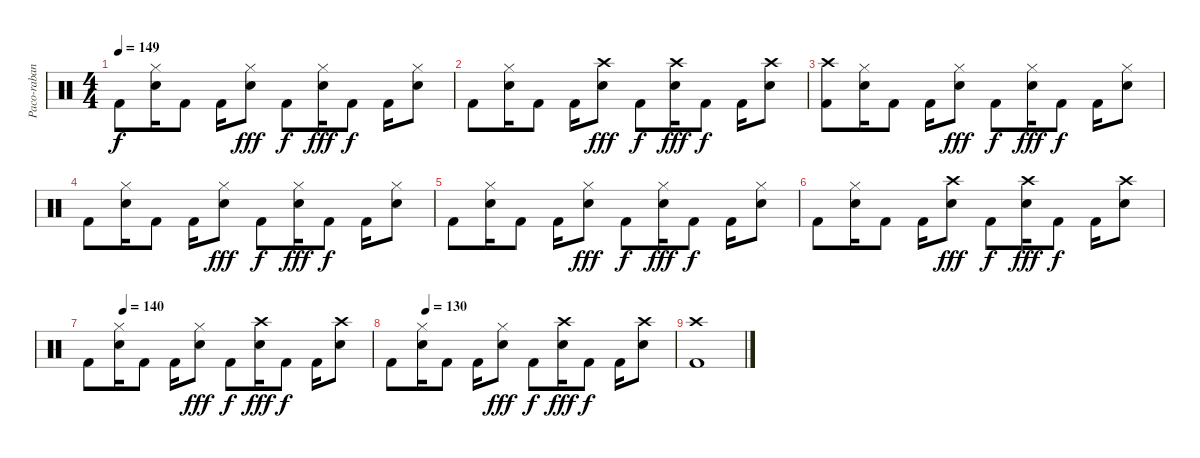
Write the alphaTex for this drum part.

\track ("Paco-rabane" "Paco-raban") {instrument percussion}
\staff {score}
\articulation defaults
\ts (4 4)
\tempo 149
\clef neutral
\ks c "Kick (hit) 2".8{dy f}
("Hi-Hat (closed)" "Snare (hit) 2").16 "Kick (hit) 2".8 "Kick (hit) 2".16 ("Hi-Hat (closed)" "Snare (hit) 2").8{dy fff} "Kick (hit) 2".8{dy f} ("Hi-Hat (closed)" "Snare (hit) 2").16{dy fff} "Kick (hit) 2".8{dy f} "Kick (hit) 2".16 ("Hi-Hat (closed)" "Snare (hit) 2").8 |
"Kick (hit) 2".8 ("Hi-Hat (closed)" "Snare (hit) 2").16 "Kick (hit) 2".8 "Kick (hit) 2".16 ("Crash high (hit)" "Snare (hit) 2").8{dy fff} "Kick (hit) 2".8{dy f} ("Crash high (hit)" "Snare (hit) 2").16{dy fff} "Kick (hit) 2".8{dy f} "Kick (hit) 2".16 ("Crash high (hit)" "Snare (hit) 2").8 |
("Crash high (hit)" "Kick (hit) 2").8 ("Hi-Hat (closed)" "Snare (hit) 2").16 "Kick (hit) 2".8 "Kick (hit) 2".16 ("Hi-Hat (closed)" "Snare (hit) 2").8{dy fff} "Kick (hit) 2".8{dy f} ("Hi-Hat (closed)" "Snare (hit) 2").16{dy fff} "Kick (hit) 2".8{dy f} "Kick (hit) 2".16 ("Hi-Hat (closed)" "Snare (hit) 2").8 |
"Kick (hit) 2".8 ("Hi-Hat (closed)" "Snare (hit) 2").16 "Kick (hit) 2".8 "Kick (hit) 2".16 ("Hi-Hat (closed)" "Snare (hit) 2").8{dy fff} "Kick (hit) 2".8{dy f} ("Hi-Hat (closed)" "Snare (hit) 2").16{dy fff} "Kick (hit) 2".8{dy f} "Kick (hit) 2".16 ("Hi-Hat (closed)" "Snare (hit) 2").8 |
"Kick (hit) 2".8 ("Hi-Hat (closed)" "Snare (hit) 2").16 "Kick (hit) 2".8 "Kick (hit) 2".16 ("Hi-Hat (closed)" "Snare (hit) 2").8{dy fff} "Kick (hit) 2".8{dy f} ("Hi-Hat (closed)" "Snare (hit) 2").16{dy fff} "Kick (hit) 2".8{dy f} "Kick (hit) 2".16 ("Hi-Hat (closed)" "Snare (hit) 2").8 |
"Kick (hit) 2".8 ("Hi-Hat (closed)" "Snare (hit) 2").16 "Kick (hit) 2".8 "Kick (hit) 2".16 ("Crash high (hit)" "Snare (hit) 2").8{dy fff} "Kick (hit) 2".8{dy f} ("Crash high (hit)" "Snare (hit) 2").16{dy fff} "Kick (hit) 2".8{dy f} "Kick (hit) 2".16 ("Crash high (hit)" "Snare (hit) 2").8 |
\tempo (140 0.125)
"Kick (hit) 2".8 ("Hi-Hat (closed)" "Snare (hit) 2").16 "Kick (hit) 2".8 "Kick (hit) 2".16 ("Hi-Hat (closed)" "Snare (hit) 2").8{dy fff} "Kick (hit) 2".8{dy f} ("Crash high (hit)" "Snare (hit) 2").16{dy fff} "Kick (hit) 2".8{dy f} "Kick (hit) 2".16 ("Crash high (hit)" "Snare (hit) 2").8 |
\tempo (130 0.125)
"Kick (hit) 2".8 ("Hi-Hat (closed)" "Snare (hit) 2").16 "Kick (hit) 2".8 "Kick (hit) 2".16 ("Hi-Hat (closed)" "Snare (hit) 2").8{dy fff} "Kick (hit) 2".8{dy f} ("Crash high (hit)" "Snare (hit) 2").16{dy fff} "Kick (hit) 2".8{dy f} "Kick (hit) 2".16 ("Crash high (hit)" "Snare (hit) 2").8 |
("Crash high (hit)" "Kick (hit) 2").1
